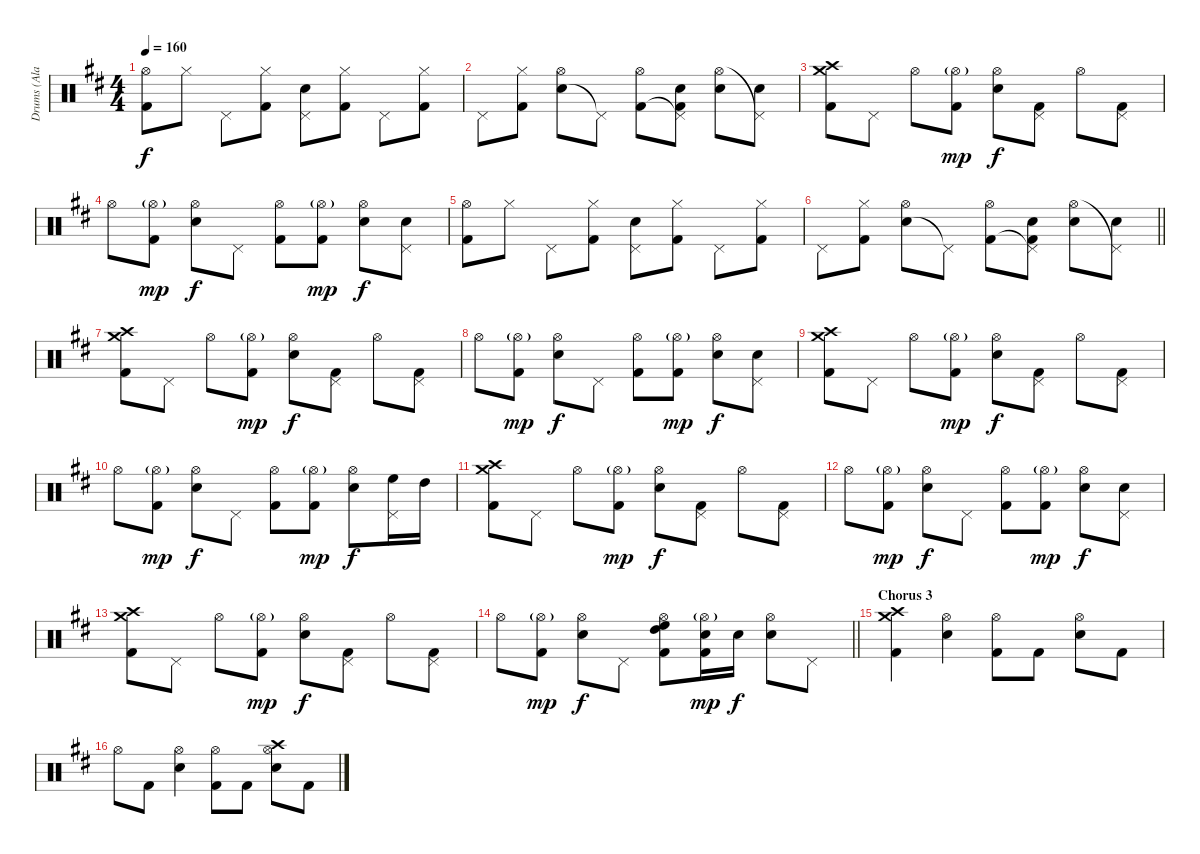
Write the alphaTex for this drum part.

\track ("Drums (Ala Pyle)" "Drums (Ala") {instrument percussion}
\staff {score}
\articulation defaults
\ts (4 4)
\tempo 160
\clef neutral
\ks d
("Hi-Hat (open)" "Kick (hit) 2").8{dy f} "Hi-Hat (closed)".8 "Pedal Hi-Hat (hit)".8 ("Hi-Hat (closed)" "Kick (hit) 2").8 ("Snare (hit) 2" "Pedal Hi-Hat (hit)").8 ("Hi-Hat (closed)" "Kick (hit) 2").8 "Pedal Hi-Hat (hit)".8 ("Hi-Hat (closed)" "Kick (hit) 2").8 |
"Pedal Hi-Hat (hit)".8 ("Hi-Hat (closed)" "Kick (hit) 2").8 ("Snare (hit) 2" "Hi-Hat (open)").8 "Pedal Hi-Hat (hit)"{t}.8 ("Hi-Hat (open)" "Kick (hit) 2").8 ("Snare (hit) 2" "Pedal Hi-Hat (hit)"{t} "Kick (hit) 2").8 ("Snare (hit) 2" "Hi-Hat (open)").8 ("Snare (hit) 2" "Pedal Hi-Hat (hit)"{t}).8 |
("Crash medium (hit)" "Crash high (hit)" "Kick (hit) 2").8 "Pedal Hi-Hat (hit)".8 "Hi-Hat (open)".8 ("Hi-Hat (open)"{g} "Kick (hit) 2").8{dy mp} ("Snare (hit) 2" "Hi-Hat (open)").8{dy f} ("Pedal Hi-Hat (hit)" "Kick (hit) 2").8 "Hi-Hat (open)".8 ("Pedal Hi-Hat (hit)" "Kick (hit) 2").8 |
"Hi-Hat (open)".8 ("Hi-Hat (open)"{g} "Kick (hit) 2").8{dy mp} ("Snare (hit) 2" "Hi-Hat (open)").8{dy f} "Pedal Hi-Hat (hit)".8 ("Hi-Hat (open)" "Kick (hit) 2").8 ("Hi-Hat (open)"{g} "Kick (hit) 2").8{dy mp} ("Snare (hit) 2" "Hi-Hat (open)").8{dy f} ("Snare (hit) 2" "Pedal Hi-Hat (hit)").8 |
("Hi-Hat (open)" "Kick (hit) 2").8 "Hi-Hat (closed)".8 "Pedal Hi-Hat (hit)".8 ("Hi-Hat (closed)" "Kick (hit) 2").8 ("Snare (hit) 2" "Pedal Hi-Hat (hit)").8 ("Hi-Hat (closed)" "Kick (hit) 2").8 "Pedal Hi-Hat (hit)".8 ("Hi-Hat (closed)" "Kick (hit) 2").8 |
\barLineRight lightlight "Pedal Hi-Hat (hit)".8
("Hi-Hat (closed)" "Kick (hit) 2").8 ("Snare (hit) 2" "Hi-Hat (open)").8 "Pedal Hi-Hat (hit)"{t}.8 ("Hi-Hat (open)" "Kick (hit) 2").8 ("Snare (hit) 2" "Pedal Hi-Hat (hit)"{t} "Kick (hit) 2").8 ("Snare (hit) 2" "Hi-Hat (open)").8 ("Snare (hit) 2" "Pedal Hi-Hat (hit)"{t}).8 |
("Crash medium (hit)" "Crash high (hit)" "Kick (hit) 2").8 "Pedal Hi-Hat (hit)".8 "Hi-Hat (open)".8 ("Hi-Hat (open)"{g} "Kick (hit) 2").8{dy mp} ("Snare (hit) 2" "Hi-Hat (open)").8{dy f} ("Pedal Hi-Hat (hit)" "Kick (hit) 2").8 "Hi-Hat (open)".8 ("Pedal Hi-Hat (hit)" "Kick (hit) 2").8 |
"Hi-Hat (open)".8 ("Hi-Hat (open)"{g} "Kick (hit) 2").8{dy mp} ("Snare (hit) 2" "Hi-Hat (open)").8{dy f} "Pedal Hi-Hat (hit)".8 ("Hi-Hat (open)" "Kick (hit) 2").8 ("Hi-Hat (open)"{g} "Kick (hit) 2").8{dy mp} ("Snare (hit) 2" "Hi-Hat (open)").8{dy f} ("Snare (hit) 2" "Pedal Hi-Hat (hit)").8 |
("Crash medium (hit)" "Crash high (hit)" "Kick (hit) 2").8 "Pedal Hi-Hat (hit)".8 "Hi-Hat (open)".8 ("Hi-Hat (open)"{g} "Kick (hit) 2").8{dy mp} ("Snare (hit) 2" "Hi-Hat (open)").8{dy f} ("Pedal Hi-Hat (hit)" "Kick (hit) 2").8 "Hi-Hat (open)".8 ("Pedal Hi-Hat (hit)" "Kick (hit) 2").8 |
"Hi-Hat (open)".8 ("Hi-Hat (open)"{g} "Kick (hit) 2").8{dy mp} ("Snare (hit) 2" "Hi-Hat (open)").8{dy f} "Pedal Hi-Hat (hit)".8 ("Hi-Hat (open)" "Kick (hit) 2").8 ("Hi-Hat (open)"{g} "Kick (hit) 2").8{dy mp} ("Snare (hit) 2" "Hi-Hat (open)").8{dy f} ("Pedal Hi-Hat (hit)" "High Floor Tom (hit)").16 "High Tom (hit)".16 |
("Crash medium (hit)" "Crash high (hit)" "Kick (hit) 2").8 "Pedal Hi-Hat (hit)".8 "Hi-Hat (open)".8 ("Hi-Hat (open)"{g} "Kick (hit) 2").8{dy mp} ("Snare (hit) 2" "Hi-Hat (open)").8{dy f} ("Pedal Hi-Hat (hit)" "Kick (hit) 2").8 "Hi-Hat (open)".8 ("Pedal Hi-Hat (hit)" "Kick (hit) 2").8 |
"Hi-Hat (open)".8 ("Hi-Hat (open)"{g} "Kick (hit) 2").8{dy mp} ("Snare (hit) 2" "Hi-Hat (open)").8{dy f} "Pedal Hi-Hat (hit)".8 ("Hi-Hat (open)" "Kick (hit) 2").8 ("Hi-Hat (open)"{g} "Kick (hit) 2").8{dy mp} ("Snare (hit) 2" "Hi-Hat (open)").8{dy f} ("Snare (hit) 2" "Pedal Hi-Hat (hit)").8 |
("Crash medium (hit)" "Crash high (hit)" "Kick (hit) 2").8 "Pedal Hi-Hat (hit)".8 "Hi-Hat (open)".8 ("Hi-Hat (open)"{g} "Kick (hit) 2").8{dy mp} ("Snare (hit) 2" "Hi-Hat (open)").8{dy f} ("Pedal Hi-Hat (hit)" "Kick (hit) 2").8 "Hi-Hat (open)".8 ("Pedal Hi-Hat (hit)" "Kick (hit) 2").8 |
\barLineRight lightlight "Hi-Hat (open)".8
("Hi-Hat (open)"{g} "Kick (hit) 2").8{dy mp} ("Snare (hit) 2" "Hi-Hat (open)").8{dy f} "Pedal Hi-Hat (hit)".8 ("High Floor Tom (hit)" "Hi-Hat (open)" "High Tom (hit)" "Kick (hit) 2").8 ("Snare (hit) 2" "Hi-Hat (open)"{g} "Kick (hit) 2").16{dy mp} "Snare (hit) 2".16{dy f} ("Snare (hit) 2" "Hi-Hat (open)").8 "Pedal Hi-Hat (hit)".8 |
\section ("" "Chorus 3")
("Crash medium (hit)" "Crash high (hit)" "Kick (hit) 2").4 ("Snare (hit) 2" "Hi-Hat (open)").4 ("Hi-Hat (open)" "Kick (hit) 2").8 "Kick (hit) 2".8 ("Snare (hit) 2" "Hi-Hat (open)").8 "Kick (hit) 2".8 |
"Hi-Hat (open)".8 "Kick (hit) 2".8 ("Snare (hit) 2" "Hi-Hat (open)").4 ("Hi-Hat (open)" "Kick (hit) 2").8 "Kick (hit) 2".8 ("Crash high (hit)" "Snare (hit) 2" "Hi-Hat (open)").8 "Kick (hit) 2".8
